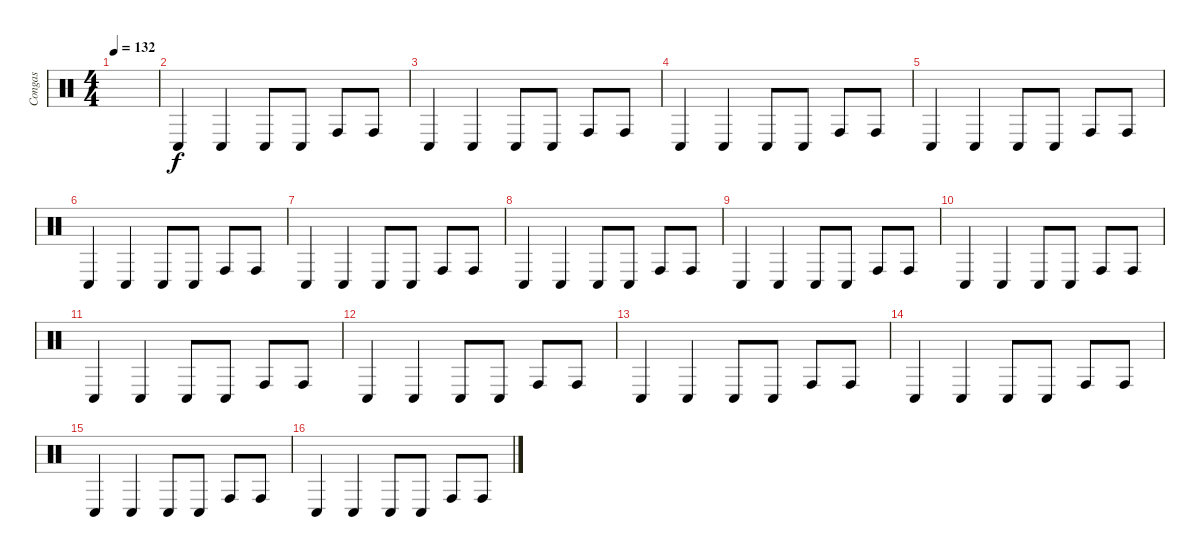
\track ("Congas" "Congas") {instrument percussion}
\staff {score}
\articulation defaults
\ts (4 4)
\tempo 132
\clef neutral
\ks c
|
"Conga low (hit)".4 "Conga low (hit)".4 "Conga low (hit)".8 "Conga low (hit)".8 "Conga high (hit)".8 "Conga high (hit)".8 |
"Conga low (hit)".4 "Conga low (hit)".4 "Conga low (hit)".8 "Conga low (hit)".8 "Conga high (hit)".8 "Conga high (hit)".8 |
"Conga low (hit)".4 "Conga low (hit)".4 "Conga low (hit)".8 "Conga low (hit)".8 "Conga high (hit)".8 "Conga high (hit)".8 |
"Conga low (hit)".4 "Conga low (hit)".4 "Conga low (hit)".8 "Conga low (hit)".8 "Conga high (hit)".8 "Conga high (hit)".8 |
"Conga low (hit)".4 "Conga low (hit)".4 "Conga low (hit)".8 "Conga low (hit)".8 "Conga high (hit)".8 "Conga high (hit)".8 |
"Conga low (hit)".4 "Conga low (hit)".4 "Conga low (hit)".8 "Conga low (hit)".8 "Conga high (hit)".8 "Conga high (hit)".8 |
"Conga low (hit)".4 "Conga low (hit)".4 "Conga low (hit)".8 "Conga low (hit)".8 "Conga high (hit)".8 "Conga high (hit)".8 |
"Conga low (hit)".4 "Conga low (hit)".4 "Conga low (hit)".8 "Conga low (hit)".8 "Conga high (hit)".8 "Conga high (hit)".8 |
"Conga low (hit)".4 "Conga low (hit)".4 "Conga low (hit)".8 "Conga low (hit)".8 "Conga high (hit)".8 "Conga high (hit)".8 |
"Conga low (hit)".4 "Conga low (hit)".4 "Conga low (hit)".8 "Conga low (hit)".8 "Conga high (hit)".8 "Conga high (hit)".8 |
"Conga low (hit)".4 "Conga low (hit)".4 "Conga low (hit)".8 "Conga low (hit)".8 "Conga high (hit)".8 "Conga high (hit)".8 |
"Conga low (hit)".4 "Conga low (hit)".4 "Conga low (hit)".8 "Conga low (hit)".8 "Conga high (hit)".8 "Conga high (hit)".8 |
"Conga low (hit)".4 "Conga low (hit)".4 "Conga low (hit)".8 "Conga low (hit)".8 "Conga high (hit)".8 "Conga high (hit)".8 |
"Conga low (hit)".4 "Conga low (hit)".4 "Conga low (hit)".8 "Conga low (hit)".8 "Conga high (hit)".8 "Conga high (hit)".8 |
"Conga low (hit)".4 "Conga low (hit)".4 "Conga low (hit)".8 "Conga low (hit)".8 "Conga high (hit)".8 "Conga high (hit)".8
